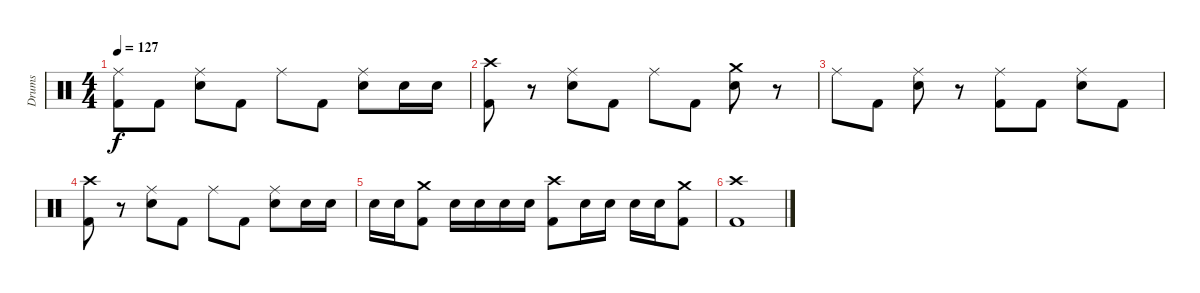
\track ("Drums" "Drums") {instrument percussion}
\staff {score}
\articulation defaults
\ts (4 4)
\tempo 127
\clef neutral
\ks c
("Ride (middle)" "Kick (hit) 2").8{dy f} "Kick (hit) 2".8 ("Ride (middle)" "Electric Snare (hit)").8 "Kick (hit) 2".8 "Ride (middle)".8 "Kick (hit) 2".8 ("Ride (middle)" "Electric Snare (hit)").8 "Electric Snare (hit)".16 "Electric Snare (hit)".16 |
("Crash high (hit)" "Kick (hit) 2").8 r.8 ("Ride (middle)" "Electric Snare (hit)").8 "Kick (hit) 2".8 "Ride (middle)".8 "Kick (hit) 2".8 ("Crash medium (hit)" "Electric Snare (hit)").8 r.8 |
"Ride (middle)".8 "Kick (hit) 2".8 ("Ride (middle)" "Electric Snare (hit)").8 r.8 ("Ride (middle)" "Kick (hit) 2").8 "Kick (hit) 2".8 ("Ride (middle)" "Electric Snare (hit)").8 "Kick (hit) 2".8 |
("Crash high (hit)" "Kick (hit) 2").8 r.8 ("Ride (middle)" "Electric Snare (hit)").8 "Kick (hit) 2".8 "Ride (middle)".8 "Kick (hit) 2".8 ("Ride (middle)" "Electric Snare (hit)").8 "Electric Snare (hit)".16 "Electric Snare (hit)".16 |
"Electric Snare (hit)".16 "Electric Snare (hit)".16 ("Crash medium (hit)" "Kick (hit) 2").8 "Electric Snare (hit)".16 "Electric Snare (hit)".16 "Electric Snare (hit)".16 "Electric Snare (hit)".16 ("Crash high (hit)" "Kick (hit) 2").8 "Electric Snare (hit)".16 "Electric Snare (hit)".16 "Electric Snare (hit)".16 "Electric Snare (hit)".16 ("Crash medium (hit)" "Kick (hit) 2").8 |
("Crash high (hit)" "Kick (hit) 2").1
